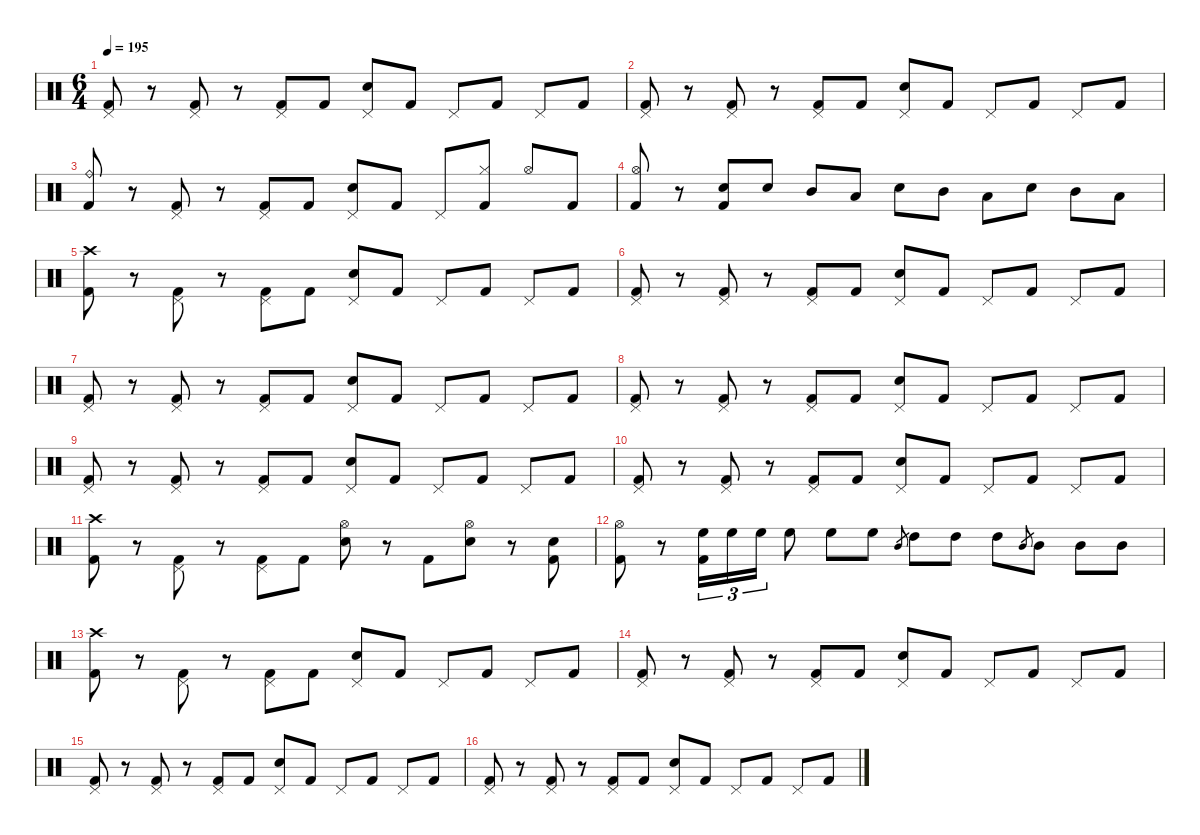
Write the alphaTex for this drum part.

\defaultSystemsLayout 4
\hideDynamics
\bracketExtendMode nobrackets
\singleTrackTrackNamePolicy hidden
\multiTrackTrackNamePolicy hidden
\firstSystemTrackNameMode fullname
\firstSystemTrackNameOrientation horizontal
\otherSystemsTrackNameOrientation horizontal
\track ("Drums" "drm.") {instrument percussion}
\staff {score}
\articulation defaults
\ts (6 4)
\tempo 195
\clef neutral
\ks c
("Pedal Hi-Hat (hit)" "Kick (hit) 2").8{dy f beam Up} r.8{beam Up} ("Pedal Hi-Hat (hit)" "Kick (hit) 2").8{beam Up} r.8{beam Up} ("Pedal Hi-Hat (hit)" "Kick (hit) 2").8{beam Up} "Kick (hit) 2".8{beam Up} ("Pedal Hi-Hat (hit)" "Snare (hit) 2").8{beam Up} "Kick (hit) 2".8{beam Up} "Pedal Hi-Hat (hit)".8{beam Up} "Kick (hit) 2".8{beam Up} "Pedal Hi-Hat (hit)".8{beam Up} "Kick (hit) 2".8{beam Up} |
("Pedal Hi-Hat (hit)" "Kick (hit) 2").8{beam Up} r.8{beam Up} ("Pedal Hi-Hat (hit)" "Kick (hit) 2").8{beam Up} r.8{beam Up} ("Pedal Hi-Hat (hit)" "Kick (hit) 2").8{beam Up} "Kick (hit) 2".8{beam Up} ("Pedal Hi-Hat (hit)" "Snare (hit) 2").8{beam Up} "Kick (hit) 2".8{beam Up} "Pedal Hi-Hat (hit)".8{beam Up} "Kick (hit) 2".8{beam Up} "Pedal Hi-Hat (hit)".8{beam Up} "Kick (hit) 2".8{beam Up} |
("Ride (bell)" "Kick (hit) 2").8{beam Up} r.8{beam Up} ("Pedal Hi-Hat (hit)" "Kick (hit) 2").8{beam Up} r.8{beam Up} ("Pedal Hi-Hat (hit)" "Kick (hit) 2").8{beam Up} "Kick (hit) 2".8{beam Up} ("Pedal Hi-Hat (hit)" "Snare (hit) 2").8{beam Up} "Kick (hit) 2".8{beam Up} "Pedal Hi-Hat (hit)".8{beam Up} ("Hi-Hat (closed)" "Kick (hit) 2").8{beam Up} "Hi-Hat (open)".8{beam Up} "Kick (hit) 2".8{beam Up} |
("Hi-Hat (open)" "Kick (hit) 2").8{beam Up} r.8{beam Up} ("Snare (hit) 2" "Kick (hit) 2").8{beam Up} "Snare (hit) 2".8{beam Up} "Mid Tom (hit)".8{beam Up} "Low Tom (hit)".8{beam Up} "Snare (hit) 2".8{beam Down} "Mid Tom (hit)".8{beam Down} "Low Tom (hit)".8{beam Down} "Snare (hit) 2".8{beam Down} "Mid Tom (hit)".8{beam Down} "Low Tom (hit)".8{beam Down} |
("Crash high (hit)" "Kick (hit) 2").8{beam Down} r.8{beam Down} ("Pedal Hi-Hat (hit)" "Kick (hit) 2").8{beam Down} r.8{beam Down} ("Pedal Hi-Hat (hit)" "Kick (hit) 2").8{beam Down} "Kick (hit) 2".8{beam Down} ("Pedal Hi-Hat (hit)" "Snare (hit) 2").8{beam Up} "Kick (hit) 2".8{beam Up} "Pedal Hi-Hat (hit)".8{beam Up} "Kick (hit) 2".8{beam Up} "Pedal Hi-Hat (hit)".8{beam Up} "Kick (hit) 2".8{beam Up} |
("Pedal Hi-Hat (hit)" "Kick (hit) 2").8{beam Up} r.8{beam Up} ("Pedal Hi-Hat (hit)" "Kick (hit) 2").8{beam Up} r.8{beam Up} ("Pedal Hi-Hat (hit)" "Kick (hit) 2").8{beam Up} "Kick (hit) 2".8{beam Up} ("Pedal Hi-Hat (hit)" "Snare (hit) 2").8{beam Up} "Kick (hit) 2".8{beam Up} "Pedal Hi-Hat (hit)".8{beam Up} "Kick (hit) 2".8{beam Up} "Pedal Hi-Hat (hit)".8{beam Up} "Kick (hit) 2".8{beam Up} |
("Pedal Hi-Hat (hit)" "Kick (hit) 2").8{beam Up} r.8{beam Up} ("Pedal Hi-Hat (hit)" "Kick (hit) 2").8{beam Up} r.8{beam Up} ("Pedal Hi-Hat (hit)" "Kick (hit) 2").8{beam Up} "Kick (hit) 2".8{beam Up} ("Pedal Hi-Hat (hit)" "Snare (hit) 2").8{beam Up} "Kick (hit) 2".8{beam Up} "Pedal Hi-Hat (hit)".8{beam Up} "Kick (hit) 2".8{beam Up} "Pedal Hi-Hat (hit)".8{beam Up} "Kick (hit) 2".8{beam Up} |
("Pedal Hi-Hat (hit)" "Kick (hit) 2").8{beam Up} r.8{beam Up} ("Pedal Hi-Hat (hit)" "Kick (hit) 2").8{beam Up} r.8{beam Up} ("Pedal Hi-Hat (hit)" "Kick (hit) 2").8{beam Up} "Kick (hit) 2".8{beam Up} ("Pedal Hi-Hat (hit)" "Snare (hit) 2").8{beam Up} "Kick (hit) 2".8{beam Up} "Pedal Hi-Hat (hit)".8{beam Up} "Kick (hit) 2".8{beam Up} "Pedal Hi-Hat (hit)".8{beam Up} "Kick (hit) 2".8{beam Up} |
("Pedal Hi-Hat (hit)" "Kick (hit) 2").8{beam Up} r.8{beam Up} ("Pedal Hi-Hat (hit)" "Kick (hit) 2").8{beam Up} r.8{beam Up} ("Pedal Hi-Hat (hit)" "Kick (hit) 2").8{beam Up} "Kick (hit) 2".8{beam Up} ("Pedal Hi-Hat (hit)" "Snare (hit) 2").8{beam Up} "Kick (hit) 2".8{beam Up} "Pedal Hi-Hat (hit)".8{beam Up} "Kick (hit) 2".8{beam Up} "Pedal Hi-Hat (hit)".8{beam Up} "Kick (hit) 2".8{beam Up} |
("Pedal Hi-Hat (hit)" "Kick (hit) 2").8{beam Up} r.8{beam Up} ("Pedal Hi-Hat (hit)" "Kick (hit) 2").8{beam Up} r.8{beam Up} ("Pedal Hi-Hat (hit)" "Kick (hit) 2").8{beam Up} "Kick (hit) 2".8{beam Up} ("Pedal Hi-Hat (hit)" "Snare (hit) 2").8{beam Up} "Kick (hit) 2".8{beam Up} "Pedal Hi-Hat (hit)".8{beam Up} "Kick (hit) 2".8{beam Up} "Pedal Hi-Hat (hit)".8{beam Up} "Kick (hit) 2".8{beam Up} |
("Crash high (hit)" "Kick (hit) 2").8{beam Down} r.8{beam Down} ("Pedal Hi-Hat (hit)" "Kick (hit) 2").8{beam Down} r.8{beam Down} ("Pedal Hi-Hat (hit)" "Kick (hit) 2").8{beam Down} "Kick (hit) 2".8{beam Down} ("Hi-Hat (open)" "Snare (hit) 2").8{beam Down} r.8{beam Down} "Kick (hit) 2".8{beam Down} ("Hi-Hat (open)" "Snare (hit) 2").8{beam Down} r.8{beam Down} ("Snare (hit) 2" "Kick (hit) 2").8{beam Down} |
("Hi-Hat (open)" "Kick (hit) 2").8{beam Down} r.8{beam Down} ("High Floor Tom (hit)" "Kick (hit) 2").16{tu (3 2) beam Down} "High Floor Tom (hit)".16{tu (3 2) beam Down} "High Floor Tom (hit)".16{tu (3 2) beam Down} "High Floor Tom (hit)".8{beam Down} "High Floor Tom (hit)".8{beam Down} "High Floor Tom (hit)".8{beam Down} "Mid Tom (hit)".8{gr dy mf beam Up} "High Tom (hit)".8{dy f beam Down} "High Tom (hit)".8{beam Down} "High Tom (hit)".8{beam Down} "Mid Tom (hit)".8{gr dy mf beam Up} "Mid Tom (hit)".8{dy f beam Down} "Mid Tom (hit)".8{beam Down} "Mid Tom (hit)".8{beam Down} |
("Crash high (hit)" "Kick (hit) 2").8{beam Down} r.8{beam Down} ("Pedal Hi-Hat (hit)" "Kick (hit) 2").8{beam Down} r.8{beam Down} ("Pedal Hi-Hat (hit)" "Kick (hit) 2").8{beam Down} "Kick (hit) 2".8{beam Down} ("Pedal Hi-Hat (hit)" "Snare (hit) 2").8{beam Up} "Kick (hit) 2".8{beam Up} "Pedal Hi-Hat (hit)".8{beam Up} "Kick (hit) 2".8{beam Up} "Pedal Hi-Hat (hit)".8{beam Up} "Kick (hit) 2".8{beam Up} |
("Pedal Hi-Hat (hit)" "Kick (hit) 2").8{beam Up} r.8{beam Up} ("Pedal Hi-Hat (hit)" "Kick (hit) 2").8{beam Up} r.8{beam Up} ("Pedal Hi-Hat (hit)" "Kick (hit) 2").8{beam Up} "Kick (hit) 2".8{beam Up} ("Pedal Hi-Hat (hit)" "Snare (hit) 2").8{beam Up} "Kick (hit) 2".8{beam Up} "Pedal Hi-Hat (hit)".8{beam Up} "Kick (hit) 2".8{beam Up} "Pedal Hi-Hat (hit)".8{beam Up} "Kick (hit) 2".8{beam Up} |
("Pedal Hi-Hat (hit)" "Kick (hit) 2").8{beam Up} r.8{beam Up} ("Pedal Hi-Hat (hit)" "Kick (hit) 2").8{beam Up} r.8{beam Up} ("Pedal Hi-Hat (hit)" "Kick (hit) 2").8{beam Up} "Kick (hit) 2".8{beam Up} ("Pedal Hi-Hat (hit)" "Snare (hit) 2").8{beam Up} "Kick (hit) 2".8{beam Up} "Pedal Hi-Hat (hit)".8{beam Up} "Kick (hit) 2".8{beam Up} "Pedal Hi-Hat (hit)".8{beam Up} "Kick (hit) 2".8{beam Up} |
("Pedal Hi-Hat (hit)" "Kick (hit) 2").8{beam Up} r.8{beam Up} ("Pedal Hi-Hat (hit)" "Kick (hit) 2").8{beam Up} r.8{beam Up} ("Pedal Hi-Hat (hit)" "Kick (hit) 2").8{beam Up} "Kick (hit) 2".8{beam Up} ("Pedal Hi-Hat (hit)" "Snare (hit) 2").8{beam Up} "Kick (hit) 2".8{beam Up} "Pedal Hi-Hat (hit)".8{beam Up} "Kick (hit) 2".8{beam Up} "Pedal Hi-Hat (hit)".8{beam Up} "Kick (hit) 2".8{beam Up}
